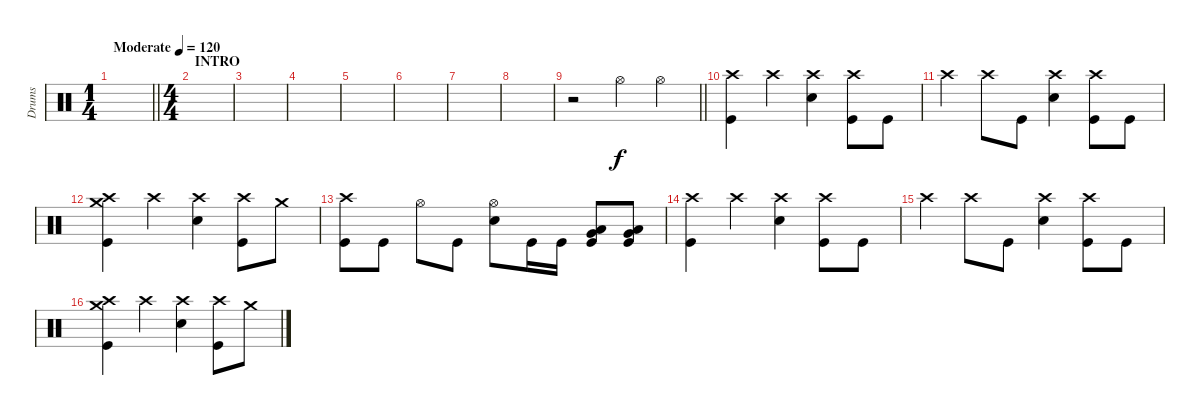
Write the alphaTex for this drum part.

\track ("Drums" "Drums") {instrument percussion}
\staff
\articulation defaults
\ts (1 4)
\tempo (120 "Moderate")
\clef neutral
\barLineRight lightlight
\ks c
|
\ts (4 4)
\section ("" "INTRO")
|
|
|
|
|
|
|
\barLineRight lightlight
r.2 "Hi-Hat (open)".4 "Hi-Hat (open)".4 |
("Crash high (hit)" "Kick (hit)").4 "Crash high (hit)".4 ("Crash high (hit)" "Electric Snare (hit)").4 ("Crash high (hit)" "Kick (hit)").8 "Kick (hit)".8 |
"Crash high (hit)".4 "Crash high (hit)".8 "Kick (hit)".8 ("Crash high (hit)" "Electric Snare (hit)").4 ("Crash high (hit)" "Kick (hit)").8 "Kick (hit)".8 |
("Crash high (hit)" "Crash medium (hit)" "Kick (hit)").4 "Crash high (hit)".4 ("Crash high (hit)" "Electric Snare (hit)").4 ("Crash high (hit)" "Kick (hit)").8 "Crash medium (hit)".8 |
("Crash high (hit)" "Kick (hit)").8 "Kick (hit)".8 "Hi-Hat (open)".8 "Kick (hit)".8 ("Hi-Hat (open)" "Electric Snare (hit)").8 "Kick (hit)".16 "Kick (hit)".16 ("Very Low Tom (hit)" "Low Floor Tom (hit)" "Kick (hit)").8 ("Very Low Tom (hit)" "Low Floor Tom (hit)" "Kick (hit)").8 |
("Crash high (hit)" "Kick (hit)").4 "Crash high (hit)".4 ("Crash high (hit)" "Electric Snare (hit)").4 ("Crash high (hit)" "Kick (hit)").8 "Kick (hit)".8 |
"Crash high (hit)".4 "Crash high (hit)".8 "Kick (hit)".8 ("Crash high (hit)" "Electric Snare (hit)").4 ("Crash high (hit)" "Kick (hit)").8 "Kick (hit)".8 |
("Crash high (hit)" "Crash medium (hit)" "Kick (hit)").4 "Crash high (hit)".4 ("Crash high (hit)" "Electric Snare (hit)").4 ("Crash high (hit)" "Kick (hit)").8 "Crash medium (hit)".8
